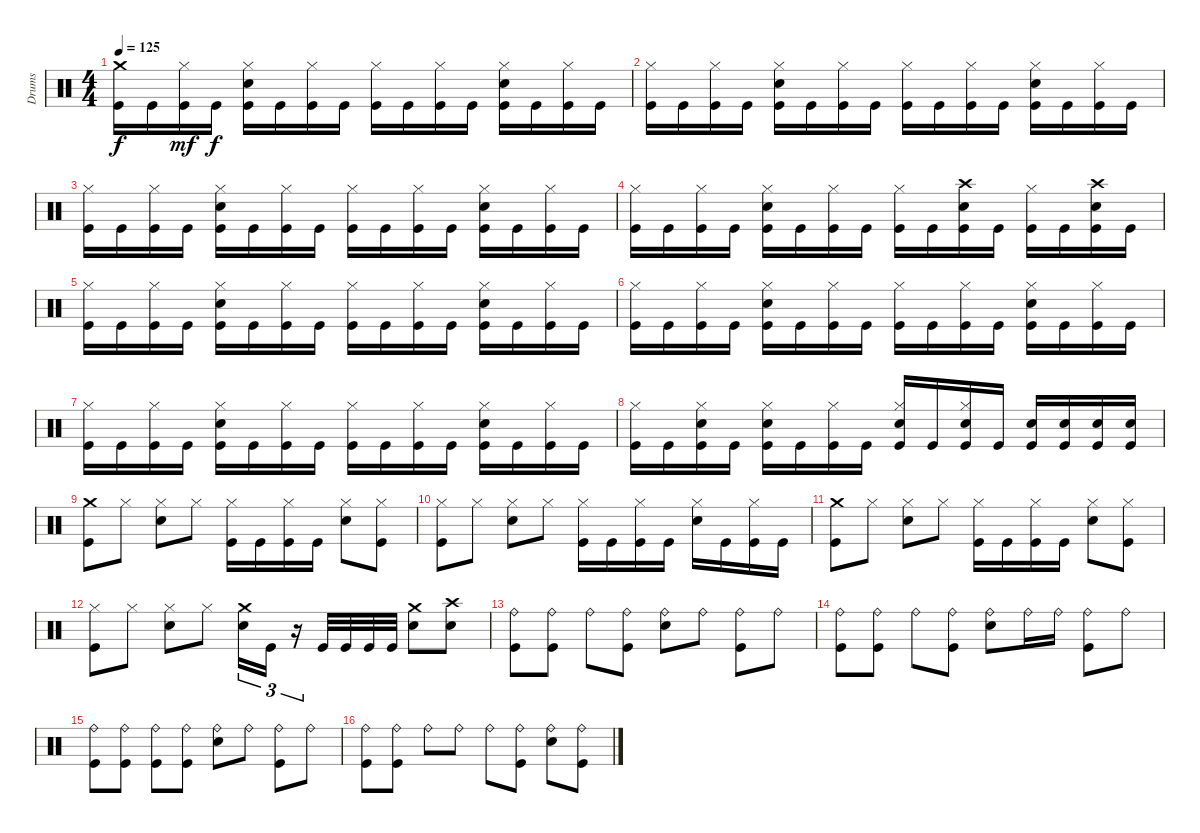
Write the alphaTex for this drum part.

\track ("Drums" "Drums") {instrument percussion}
\staff {score}
\articulation defaults
\ts (4 4)
\tempo 125
\clef neutral
\ks c
("Kick (hit)" "Crash medium (hit)").16{dy f} "Kick (hit)".16 ("Kick (hit)" "Hi-Hat (closed)").16{dy mf} "Kick (hit)".16{dy f} ("Kick (hit)" "Electric Snare (hit)" "Hi-Hat (closed)").16 "Kick (hit)".16 ("Kick (hit)" "Hi-Hat (closed)").16 "Kick (hit)".16 ("Kick (hit)" "Hi-Hat (closed)").16 "Kick (hit)".16 ("Kick (hit)" "Hi-Hat (closed)").16 "Kick (hit)".16 ("Kick (hit)" "Electric Snare (hit)" "Hi-Hat (closed)").16 "Kick (hit)".16 ("Kick (hit)" "Hi-Hat (closed)").16 "Kick (hit)".16 |
("Kick (hit)" "Hi-Hat (closed)").16 "Kick (hit)".16 ("Kick (hit)" "Hi-Hat (closed)").16 "Kick (hit)".16 ("Kick (hit)" "Electric Snare (hit)" "Hi-Hat (closed)").16 "Kick (hit)".16 ("Kick (hit)" "Hi-Hat (closed)").16 "Kick (hit)".16 ("Kick (hit)" "Hi-Hat (closed)").16 "Kick (hit)".16 ("Kick (hit)" "Hi-Hat (closed)").16 "Kick (hit)".16 ("Kick (hit)" "Electric Snare (hit)" "Hi-Hat (closed)").16 "Kick (hit)".16 ("Kick (hit)" "Hi-Hat (closed)").16 "Kick (hit)".16 |
("Kick (hit)" "Hi-Hat (closed)").16 "Kick (hit)".16 ("Kick (hit)" "Hi-Hat (closed)").16 "Kick (hit)".16 ("Kick (hit)" "Electric Snare (hit)" "Hi-Hat (closed)").16 "Kick (hit)".16 ("Kick (hit)" "Hi-Hat (closed)").16 "Kick (hit)".16 ("Kick (hit)" "Hi-Hat (closed)").16 "Kick (hit)".16 ("Kick (hit)" "Hi-Hat (closed)").16 "Kick (hit)".16 ("Kick (hit)" "Electric Snare (hit)" "Hi-Hat (closed)").16 "Kick (hit)".16 ("Kick (hit)" "Hi-Hat (closed)").16 "Kick (hit)".16 |
("Kick (hit)" "Hi-Hat (closed)").16 "Kick (hit)".16 ("Kick (hit)" "Hi-Hat (closed)").16 "Kick (hit)".16 ("Kick (hit)" "Electric Snare (hit)" "Hi-Hat (closed)").16 "Kick (hit)".16 ("Kick (hit)" "Hi-Hat (closed)").16 "Kick (hit)".16 ("Kick (hit)" "Hi-Hat (closed)").16 "Kick (hit)".16 ("Kick (hit)" "Electric Snare (hit)" "Crash high (hit)").16 "Kick (hit)".16 ("Kick (hit)" "Hi-Hat (closed)").16 "Kick (hit)".16 ("Kick (hit)" "Electric Snare (hit)" "Crash high (hit)").16 "Kick (hit)".16 |
("Kick (hit)" "Hi-Hat (closed)").16 "Kick (hit)".16 ("Kick (hit)" "Hi-Hat (closed)").16 "Kick (hit)".16 ("Kick (hit)" "Electric Snare (hit)" "Hi-Hat (closed)").16 "Kick (hit)".16 ("Kick (hit)" "Hi-Hat (closed)").16 "Kick (hit)".16 ("Kick (hit)" "Hi-Hat (closed)").16 "Kick (hit)".16 ("Kick (hit)" "Hi-Hat (closed)").16 "Kick (hit)".16 ("Kick (hit)" "Electric Snare (hit)" "Hi-Hat (closed)").16 "Kick (hit)".16 ("Kick (hit)" "Hi-Hat (closed)").16 "Kick (hit)".16 |
("Kick (hit)" "Hi-Hat (closed)").16 "Kick (hit)".16 ("Kick (hit)" "Hi-Hat (closed)").16 "Kick (hit)".16 ("Kick (hit)" "Electric Snare (hit)" "Hi-Hat (closed)").16 "Kick (hit)".16 ("Kick (hit)" "Hi-Hat (closed)").16 "Kick (hit)".16 ("Kick (hit)" "Hi-Hat (closed)").16 "Kick (hit)".16 ("Kick (hit)" "Hi-Hat (closed)").16 "Kick (hit)".16 ("Kick (hit)" "Electric Snare (hit)" "Hi-Hat (closed)").16 "Kick (hit)".16 ("Kick (hit)" "Hi-Hat (closed)").16 "Kick (hit)".16 |
("Kick (hit)" "Hi-Hat (closed)").16 "Kick (hit)".16 ("Kick (hit)" "Hi-Hat (closed)").16 "Kick (hit)".16 ("Kick (hit)" "Electric Snare (hit)" "Hi-Hat (closed)").16 "Kick (hit)".16 ("Kick (hit)" "Hi-Hat (closed)").16 "Kick (hit)".16 ("Kick (hit)" "Hi-Hat (closed)").16 "Kick (hit)".16 ("Kick (hit)" "Hi-Hat (closed)").16 "Kick (hit)".16 ("Kick (hit)" "Electric Snare (hit)" "Hi-Hat (closed)").16 "Kick (hit)".16 ("Kick (hit)" "Hi-Hat (closed)").16 "Kick (hit)".16 |
("Kick (hit)" "Hi-Hat (closed)").16 "Kick (hit)".16 ("Kick (hit)" "Electric Snare (hit)" "Hi-Hat (closed)").16 "Kick (hit)".16 ("Kick (hit)" "Electric Snare (hit)" "Hi-Hat (closed)").16 "Kick (hit)".16 ("Kick (hit)" "Hi-Hat (closed)").16 "Kick (hit)".16 ("Kick (hit)" "Electric Snare (hit)" "Hi-Hat (closed)").16 "Kick (hit)".16 ("Kick (hit)" "Electric Snare (hit)" "Hi-Hat (closed)").16 "Kick (hit)".16 ("Kick (hit)" "Electric Snare (hit)").16 ("Kick (hit)" "Electric Snare (hit)").16 ("Kick (hit)" "Electric Snare (hit)").16 ("Kick (hit)" "Electric Snare (hit)").16 |
("Kick (hit)" "Crash medium (hit)").8 "Hi-Hat (closed)".8 ("Electric Snare (hit)" "Hi-Hat (closed)").8 "Hi-Hat (closed)".8 ("Kick (hit)" "Hi-Hat (closed)").16 "Kick (hit)".16 ("Kick (hit)" "Hi-Hat (closed)").16 "Kick (hit)".16 ("Electric Snare (hit)" "Hi-Hat (closed)").8 ("Kick (hit)" "Hi-Hat (closed)").8 |
("Kick (hit)" "Hi-Hat (closed)").8 "Hi-Hat (closed)".8 ("Electric Snare (hit)" "Hi-Hat (closed)").8 "Hi-Hat (closed)".8 ("Kick (hit)" "Hi-Hat (closed)").16 "Kick (hit)".16 ("Kick (hit)" "Hi-Hat (closed)").16 "Kick (hit)".16 ("Electric Snare (hit)" "Hi-Hat (closed)").16 "Kick (hit)".16 ("Kick (hit)" "Hi-Hat (closed)").16 "Kick (hit)".16 |
("Kick (hit)" "Crash medium (hit)").8 "Hi-Hat (closed)".8 ("Electric Snare (hit)" "Hi-Hat (closed)").8 "Hi-Hat (closed)".8 ("Kick (hit)" "Hi-Hat (closed)").16 "Kick (hit)".16 ("Kick (hit)" "Hi-Hat (closed)").16 "Kick (hit)".16 ("Electric Snare (hit)" "Hi-Hat (closed)").8 ("Kick (hit)" "Hi-Hat (closed)").8 |
("Kick (hit)" "Hi-Hat (closed)").8 "Hi-Hat (closed)".8 ("Electric Snare (hit)" "Hi-Hat (closed)").8 "Hi-Hat (closed)".8 ("Electric Snare (hit)" "Crash medium (hit)").16{tu (3 2)} "Kick (hit)".16{tu (3 2)} r.16{tu (3 2)} "Kick (hit)".32 "Kick (hit)".32 "Kick (hit)".32 "Kick (hit)".32 ("Electric Snare (hit)" "Crash medium (hit)").8 ("Electric Snare (hit)" "Crash high (hit)").8 |
("Kick (hit)" "Ride (bell)").8 ("Kick (hit)" "Ride (bell)").8 "Ride (bell)".8 ("Kick (hit)" "Ride (bell)").8 ("Electric Snare (hit)" "Ride (bell)").8 "Ride (bell)".8 ("Kick (hit)" "Ride (bell)").8 "Ride (bell)".8 |
("Kick (hit)" "Ride (bell)").8 ("Kick (hit)" "Ride (bell)").8 "Ride (bell)".8 ("Kick (hit)" "Ride (bell)").8 ("Electric Snare (hit)" "Ride (bell)").8 "Ride (bell)".16 "Ride (bell)".16 ("Kick (hit)" "Ride (bell)").8 "Ride (bell)".8 |
("Kick (hit)" "Ride (bell)").8 ("Kick (hit)" "Ride (bell)").8 ("Kick (hit)" "Ride (bell)").8 ("Kick (hit)" "Ride (bell)").8 ("Electric Snare (hit)" "Ride (bell)").8 "Ride (bell)".8 ("Kick (hit)" "Ride (bell)").8 "Ride (bell)".8 |
("Kick (hit)" "Ride (bell)").8 ("Kick (hit)" "Ride (bell)").8 "Ride (bell)".8 "Ride (bell)".8 "Ride (bell)".8 ("Kick (hit)" "Ride (bell)").8 ("Electric Snare (hit)" "Ride (bell)").8 ("Kick (hit)" "Ride (bell)").8
